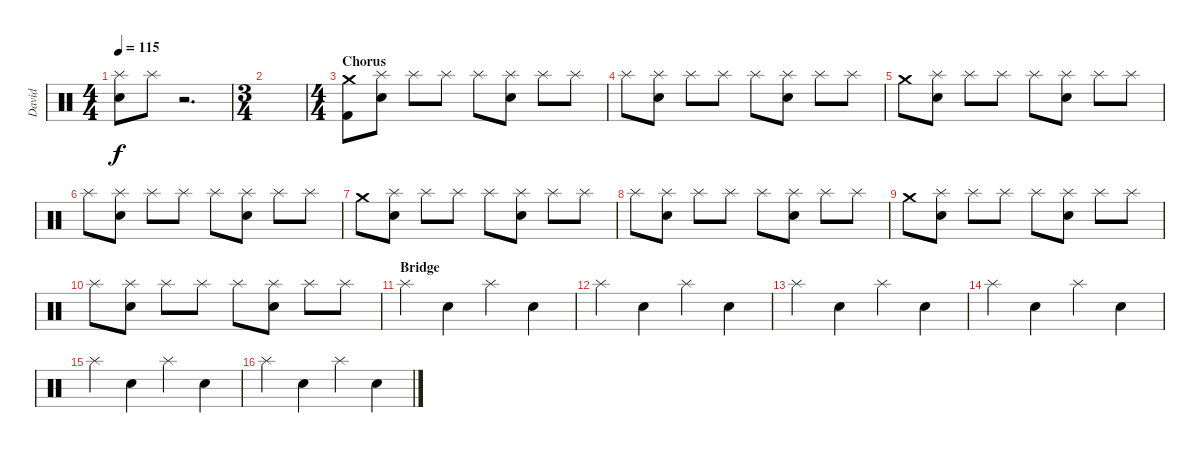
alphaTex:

\track ("David" "David") {instrument percussion}
\staff {score}
\articulation defaults
\ts (4 4)
\tempo 115
\clef neutral
\ks c
("Splash (hit)" "Electric Snare (hit)").8{dy f} "Splash (hit)".8 r.2{d} |
\ts (3 4)
|
\ts (4 4)
\section ("" "Chorus")
("Crash medium (hit)" "Kick (hit) 2").8 ("Splash (hit)" "Electric Snare (hit)").8 "Splash (hit)".8 "Splash (hit)".8 "Splash (hit)".8 ("Splash (hit)" "Electric Snare (hit)").8 "Splash (hit)".8 "Splash (hit)".8 |
"Splash (hit)".8 ("Splash (hit)" "Electric Snare (hit)").8 "Splash (hit)".8 "Splash (hit)".8 "Splash (hit)".8 ("Splash (hit)" "Electric Snare (hit)").8 "Splash (hit)".8 "Splash (hit)".8 |
"Crash medium (hit)".8 ("Splash (hit)" "Electric Snare (hit)").8 "Splash (hit)".8 "Splash (hit)".8 "Splash (hit)".8 ("Splash (hit)" "Electric Snare (hit)").8 "Splash (hit)".8 "Splash (hit)".8 |
"Splash (hit)".8 ("Splash (hit)" "Electric Snare (hit)").8 "Splash (hit)".8 "Splash (hit)".8 "Splash (hit)".8 ("Splash (hit)" "Electric Snare (hit)").8 "Splash (hit)".8 "Splash (hit)".8 |
"Crash medium (hit)".8 ("Splash (hit)" "Electric Snare (hit)").8 "Splash (hit)".8 "Splash (hit)".8 "Splash (hit)".8 ("Splash (hit)" "Electric Snare (hit)").8 "Splash (hit)".8 "Splash (hit)".8 |
"Splash (hit)".8 ("Splash (hit)" "Electric Snare (hit)").8 "Splash (hit)".8 "Splash (hit)".8 "Splash (hit)".8 ("Splash (hit)" "Electric Snare (hit)").8 "Splash (hit)".8 "Splash (hit)".8 |
"Crash medium (hit)".8 ("Splash (hit)" "Electric Snare (hit)").8 "Splash (hit)".8 "Splash (hit)".8 "Splash (hit)".8 ("Splash (hit)" "Electric Snare (hit)").8 "Splash (hit)".8 "Splash (hit)".8 |
"Splash (hit)".8 ("Splash (hit)" "Electric Snare (hit)").8 "Splash (hit)".8 "Splash (hit)".8 "Splash (hit)".8 ("Splash (hit)" "Electric Snare (hit)").8 "Splash (hit)".8 "Splash (hit)".8 |
\section ("" "Bridge")
"Splash (hit)".4 "Electric Snare (hit)".4 "Splash (hit)".4 "Electric Snare (hit)".4 |
"Splash (hit)".4 "Electric Snare (hit)".4 "Splash (hit)".4 "Electric Snare (hit)".4 |
"Splash (hit)".4 "Electric Snare (hit)".4 "Splash (hit)".4 "Electric Snare (hit)".4 |
"Splash (hit)".4 "Electric Snare (hit)".4 "Splash (hit)".4 "Electric Snare (hit)".4 |
"Splash (hit)".4 "Electric Snare (hit)".4 "Splash (hit)".4 "Electric Snare (hit)".4 |
"Splash (hit)".4 "Electric Snare (hit)".4 "Splash (hit)".4 "Electric Snare (hit)".4
